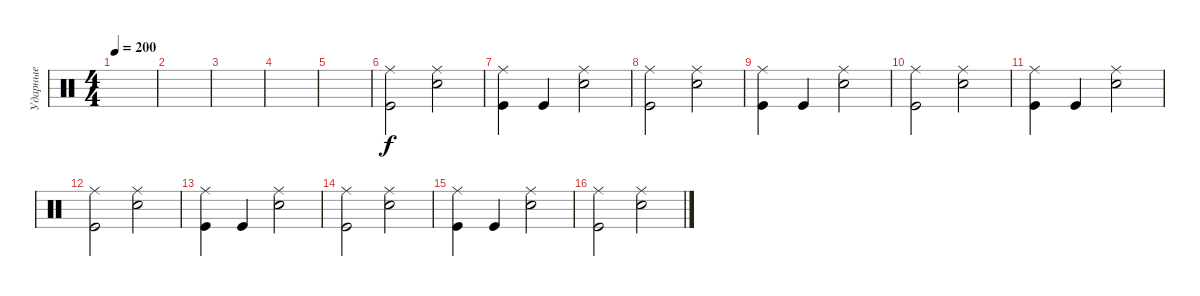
\track ("Ударные" "Ударные") {instrument percussion}
\staff {score}
\articulation defaults
\ts (4 4)
\tempo 200
\clef neutral
\ks c
|
|
|
|
|
("Ride (middle)" "Kick (hit)").2 ("Ride (middle)" "Electric Snare (hit)").2 |
("Ride (middle)" "Kick (hit)").4 "Kick (hit)".4 ("Ride (middle)" "Electric Snare (hit)").2 |
("Ride (middle)" "Kick (hit)").2 ("Ride (middle)" "Electric Snare (hit)").2 |
("Ride (middle)" "Kick (hit)").4 "Kick (hit)".4 ("Ride (middle)" "Electric Snare (hit)").2 |
("Ride (middle)" "Kick (hit)").2 ("Ride (middle)" "Electric Snare (hit)").2 |
("Ride (middle)" "Kick (hit)").4 "Kick (hit)".4 ("Ride (middle)" "Electric Snare (hit)").2 |
("Ride (middle)" "Kick (hit)").2 ("Ride (middle)" "Electric Snare (hit)").2 |
("Ride (middle)" "Kick (hit)").4 "Kick (hit)".4 ("Ride (middle)" "Electric Snare (hit)").2 |
("Ride (middle)" "Kick (hit)").2 ("Ride (middle)" "Electric Snare (hit)").2 |
("Ride (middle)" "Kick (hit)").4 "Kick (hit)".4 ("Ride (middle)" "Electric Snare (hit)").2 |
("Ride (middle)" "Kick (hit)").2 ("Ride (middle)" "Electric Snare (hit)").2
